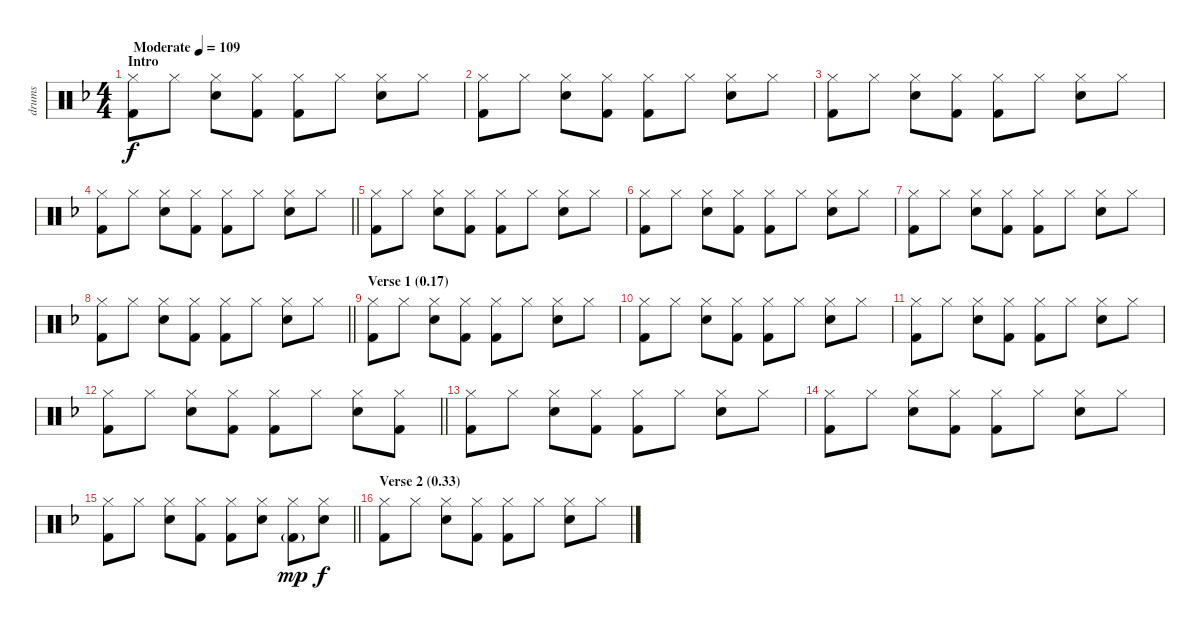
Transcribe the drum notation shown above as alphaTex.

\track ("drums" "drums") {instrument percussion}
\staff {score}
\articulation defaults
\ts (4 4)
\section ("" "Intro")
\tempo (109 "Moderate")
\clef neutral
\ks f
("Hi-Hat (closed)" "Kick (hit) 2").8{dy f} "Hi-Hat (closed)".8 ("Hi-Hat (closed)" "Electric Snare (hit)").8 ("Hi-Hat (closed)" "Kick (hit) 2").8 ("Hi-Hat (closed)" "Kick (hit) 2").8 "Hi-Hat (closed)".8 ("Hi-Hat (closed)" "Electric Snare (hit)").8 "Hi-Hat (closed)".8 |
("Hi-Hat (closed)" "Kick (hit) 2").8 "Hi-Hat (closed)".8 ("Hi-Hat (closed)" "Electric Snare (hit)").8 ("Hi-Hat (closed)" "Kick (hit) 2").8 ("Hi-Hat (closed)" "Kick (hit) 2").8 "Hi-Hat (closed)".8 ("Hi-Hat (closed)" "Electric Snare (hit)").8 "Hi-Hat (closed)".8 |
("Hi-Hat (closed)" "Kick (hit) 2").8 "Hi-Hat (closed)".8 ("Hi-Hat (closed)" "Electric Snare (hit)").8 ("Hi-Hat (closed)" "Kick (hit) 2").8 ("Hi-Hat (closed)" "Kick (hit) 2").8 "Hi-Hat (closed)".8 ("Hi-Hat (closed)" "Electric Snare (hit)").8 "Hi-Hat (closed)".8 |
\barLineRight lightlight
("Hi-Hat (closed)" "Kick (hit) 2").8 "Hi-Hat (closed)".8 ("Hi-Hat (closed)" "Electric Snare (hit)").8 ("Hi-Hat (closed)" "Kick (hit) 2").8 ("Hi-Hat (closed)" "Kick (hit) 2").8 "Hi-Hat (closed)".8 ("Hi-Hat (closed)" "Electric Snare (hit)").8 "Hi-Hat (closed)".8 |
("Hi-Hat (closed)" "Kick (hit) 2").8 "Hi-Hat (closed)".8 ("Hi-Hat (closed)" "Electric Snare (hit)").8 ("Hi-Hat (closed)" "Kick (hit) 2").8 ("Hi-Hat (closed)" "Kick (hit) 2").8 "Hi-Hat (closed)".8 ("Hi-Hat (closed)" "Electric Snare (hit)").8 "Hi-Hat (closed)".8 |
("Hi-Hat (closed)" "Kick (hit) 2").8 "Hi-Hat (closed)".8 ("Hi-Hat (closed)" "Electric Snare (hit)").8 ("Hi-Hat (closed)" "Kick (hit) 2").8 ("Hi-Hat (closed)" "Kick (hit) 2").8 "Hi-Hat (closed)".8 ("Hi-Hat (closed)" "Electric Snare (hit)").8 "Hi-Hat (closed)".8 |
("Hi-Hat (closed)" "Kick (hit) 2").8 "Hi-Hat (closed)".8 ("Hi-Hat (closed)" "Electric Snare (hit)").8 ("Hi-Hat (closed)" "Kick (hit) 2").8 ("Hi-Hat (closed)" "Kick (hit) 2").8 "Hi-Hat (closed)".8 ("Hi-Hat (closed)" "Electric Snare (hit)").8 "Hi-Hat (closed)".8 |
\barLineRight lightlight
("Hi-Hat (closed)" "Kick (hit) 2").8 "Hi-Hat (closed)".8 ("Hi-Hat (closed)" "Electric Snare (hit)").8 ("Hi-Hat (closed)" "Kick (hit) 2").8 ("Hi-Hat (closed)" "Kick (hit) 2").8 "Hi-Hat (closed)".8 ("Hi-Hat (closed)" "Electric Snare (hit)").8 "Hi-Hat (closed)".8 |
\section ("" "Verse 1 (0.17)")
("Hi-Hat (closed)" "Kick (hit) 2").8 "Hi-Hat (closed)".8 ("Hi-Hat (closed)" "Electric Snare (hit)").8 ("Hi-Hat (closed)" "Kick (hit) 2").8 ("Hi-Hat (closed)" "Kick (hit) 2").8 "Hi-Hat (closed)".8 ("Hi-Hat (closed)" "Electric Snare (hit)").8 "Hi-Hat (closed)".8 |
("Hi-Hat (closed)" "Kick (hit) 2").8 "Hi-Hat (closed)".8 ("Hi-Hat (closed)" "Electric Snare (hit)").8 ("Hi-Hat (closed)" "Kick (hit) 2").8 ("Hi-Hat (closed)" "Kick (hit) 2").8 "Hi-Hat (closed)".8 ("Hi-Hat (closed)" "Electric Snare (hit)").8 "Hi-Hat (closed)".8 |
("Hi-Hat (closed)" "Kick (hit) 2").8 "Hi-Hat (closed)".8 ("Hi-Hat (closed)" "Electric Snare (hit)").8 ("Hi-Hat (closed)" "Kick (hit) 2").8 ("Hi-Hat (closed)" "Kick (hit) 2").8 "Hi-Hat (closed)".8 ("Hi-Hat (closed)" "Electric Snare (hit)").8 "Hi-Hat (closed)".8 |
\barLineRight lightlight
("Hi-Hat (closed)" "Kick (hit) 2").8 "Hi-Hat (closed)".8 ("Hi-Hat (closed)" "Electric Snare (hit)").8 ("Hi-Hat (closed)" "Kick (hit) 2").8 ("Hi-Hat (closed)" "Kick (hit) 2").8 "Hi-Hat (closed)".8 ("Hi-Hat (closed)" "Electric Snare (hit)").8 ("Hi-Hat (closed)" "Kick (hit) 2").8 |
("Hi-Hat (closed)" "Kick (hit) 2").8 "Hi-Hat (closed)".8 ("Hi-Hat (closed)" "Electric Snare (hit)").8 ("Hi-Hat (closed)" "Kick (hit) 2").8 ("Hi-Hat (closed)" "Kick (hit) 2").8 "Hi-Hat (closed)".8 ("Hi-Hat (closed)" "Electric Snare (hit)").8 "Hi-Hat (closed)".8 |
("Hi-Hat (closed)" "Kick (hit) 2").8 "Hi-Hat (closed)".8 ("Hi-Hat (closed)" "Electric Snare (hit)").8 ("Hi-Hat (closed)" "Kick (hit) 2").8 ("Hi-Hat (closed)" "Kick (hit) 2").8 "Hi-Hat (closed)".8 ("Hi-Hat (closed)" "Electric Snare (hit)").8 "Hi-Hat (closed)".8 |
\barLineRight lightlight
("Hi-Hat (closed)" "Kick (hit) 2").8 "Hi-Hat (closed)".8 ("Hi-Hat (closed)" "Electric Snare (hit)").8 ("Hi-Hat (closed)" "Kick (hit) 2").8 ("Hi-Hat (closed)" "Kick (hit) 2").8 ("Hi-Hat (closed)" "Electric Snare (hit)").8 ("Hi-Hat (closed)" "Kick (hit) 2"{g}).8{dy mp} ("Hi-Hat (closed)" "Electric Snare (hit)").8{dy f} |
\section ("" "Verse 2 (0.33)")
("Hi-Hat (closed)" "Kick (hit) 2").8 "Hi-Hat (closed)".8 ("Hi-Hat (closed)" "Electric Snare (hit)").8 ("Hi-Hat (closed)" "Kick (hit) 2").8 ("Hi-Hat (closed)" "Kick (hit) 2").8 "Hi-Hat (closed)".8 ("Hi-Hat (closed)" "Electric Snare (hit)").8 "Hi-Hat (closed)".8
